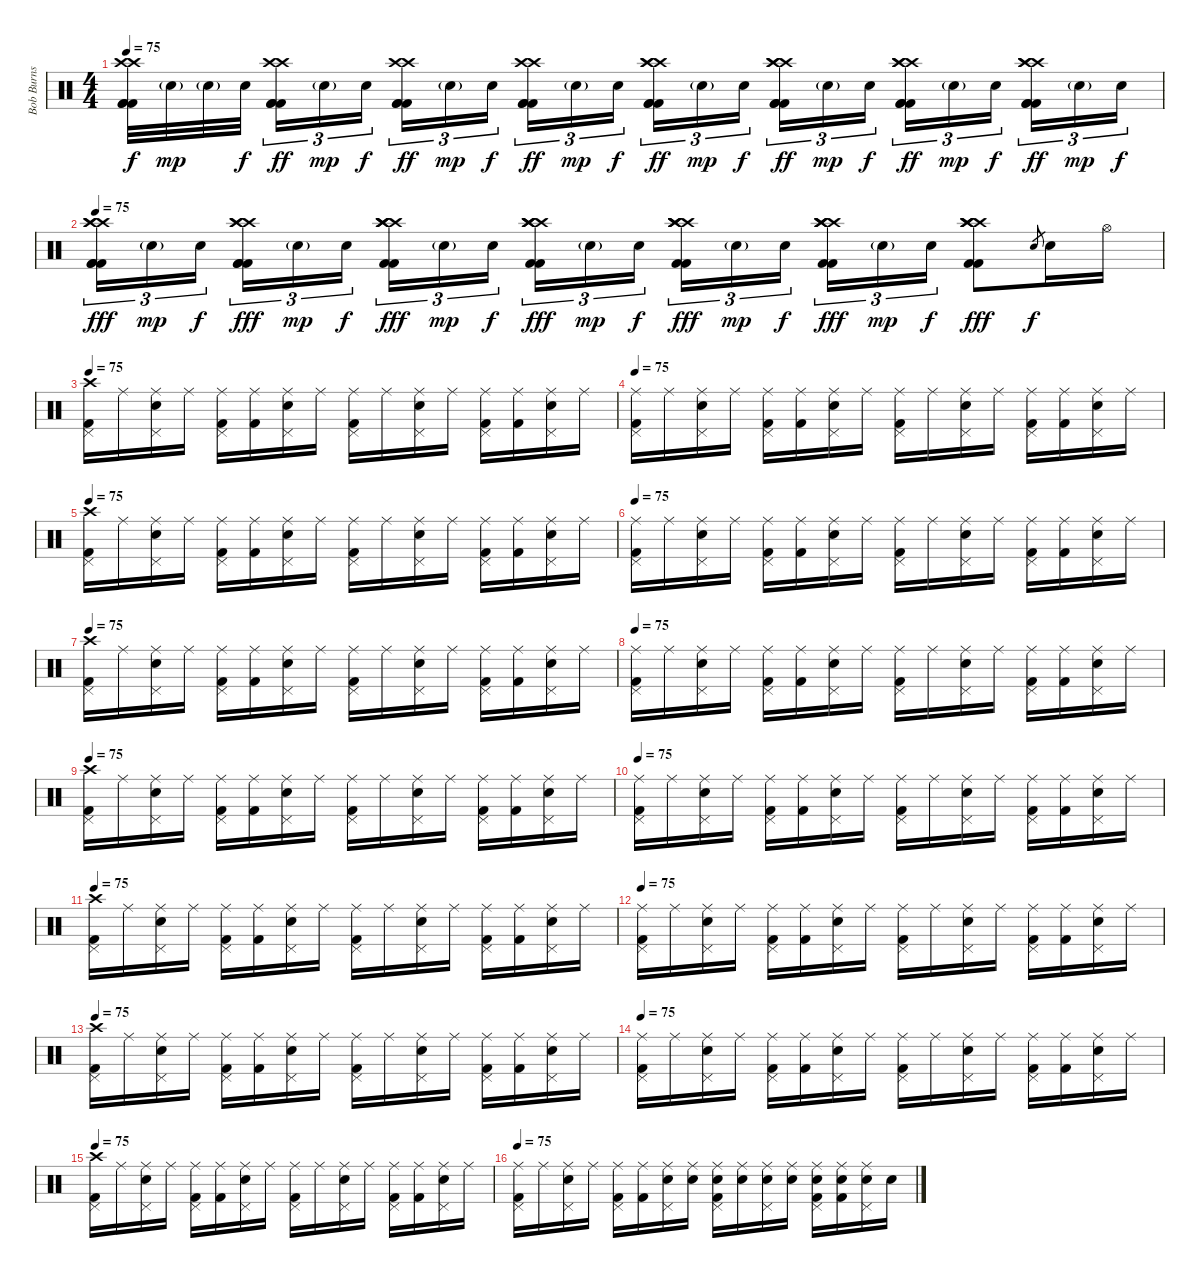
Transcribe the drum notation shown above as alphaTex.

\track ("Bob Burns (drums and percussion)" "Bob Burns ") {instrument percussion}
\staff {score}
\articulation defaults
\ts (4 4)
\tempo 75
\clef neutral
\ks c
("Crash high (hit)" "Crash high (hit)" "Kick (hit) 2" "Kick (hit) 2" "Kick (hit) 2").32{dy f} "Electric Snare (hit)"{g}.32{dy mp} "Electric Snare (hit)"{g}.32 "Electric Snare (hit)".32{dy f beam splitsecondary} ("Crash high (hit)" "Crash high (hit)" "Kick (hit) 2" "Kick (hit) 2" "Kick (hit) 2").16{tu (3 2) dy ff} "Electric Snare (hit)"{g}.16{tu (3 2) dy mp} "Electric Snare (hit)".16{tu (3 2) dy f} ("Crash high (hit)" "Crash high (hit)" "Kick (hit) 2" "Kick (hit) 2" "Kick (hit) 2").16{tu (3 2) dy ff} "Electric Snare (hit)"{g}.16{tu (3 2) dy mp} "Electric Snare (hit)".16{tu (3 2) dy f beam splitsecondary} ("Crash high (hit)" "Crash high (hit)" "Kick (hit) 2" "Kick (hit) 2" "Kick (hit) 2").16{tu (3 2) dy ff} "Electric Snare (hit)"{g}.16{tu (3 2) dy mp} "Electric Snare (hit)".16{tu (3 2) dy f} ("Crash high (hit)" "Crash high (hit)" "Crash high (hit)" "Kick (hit) 2" "Kick (hit) 2" "Kick (hit) 2").16{tu (3 2) dy ff} "Electric Snare (hit)"{g}.16{tu (3 2) dy mp} "Electric Snare (hit)".16{tu (3 2) dy f beam splitsecondary} ("Crash high (hit)" "Crash high (hit)" "Crash high (hit)" "Kick (hit) 2" "Kick (hit) 2" "Kick (hit) 2").16{tu (3 2) dy ff} "Electric Snare (hit)"{g}.16{tu (3 2) dy mp} "Electric Snare (hit)".16{tu (3 2) dy f} ("Crash high (hit)" "Crash high (hit)" "Crash high (hit)" "Kick (hit) 2" "Kick (hit) 2" "Kick (hit) 2").16{tu (3 2) dy ff} "Electric Snare (hit)"{g}.16{tu (3 2) dy mp} "Electric Snare (hit)".16{tu (3 2) dy f beam splitsecondary} ("Crash high (hit)" "Crash high (hit)" "Crash high (hit)" "Kick (hit) 2" "Kick (hit) 2" "Kick (hit) 2").16{tu (3 2) dy ff} "Electric Snare (hit)"{g}.16{tu (3 2) dy mp} "Electric Snare (hit)".16{tu (3 2) dy f} |
\tempo 75
("Crash high (hit)" "Crash high (hit)" "Crash high (hit)" "Kick (hit) 2" "Kick (hit) 2" "Kick (hit) 2").16{tu (3 2) dy fff} "Electric Snare (hit)"{g}.16{tu (3 2) dy mp} "Electric Snare (hit)".16{tu (3 2) dy f beam splitsecondary} ("Crash high (hit)" "Crash high (hit)" "Crash high (hit)" "Kick (hit) 2" "Kick (hit) 2" "Kick (hit) 2").16{tu (3 2) dy fff} "Electric Snare (hit)"{g}.16{tu (3 2) dy mp} "Electric Snare (hit)".16{tu (3 2) dy f} ("Crash high (hit)" "Crash high (hit)" "Crash high (hit)" "Crash high (hit)" "Kick (hit) 2" "Kick (hit) 2").16{tu (3 2) dy fff} "Electric Snare (hit)"{g}.16{tu (3 2) dy mp} "Electric Snare (hit)".16{tu (3 2) dy f beam splitsecondary} ("Crash high (hit)" "Crash high (hit)" "Crash high (hit)" "Crash high (hit)" "Kick (hit) 2" "Kick (hit) 2").16{tu (3 2) dy fff} "Electric Snare (hit)"{g}.16{tu (3 2) dy mp} "Electric Snare (hit)".16{tu (3 2) dy f} ("Crash high (hit)" "Crash high (hit)" "Crash high (hit)" "Crash high (hit)" "Kick (hit) 2" "Kick (hit) 2").16{tu (3 2) dy fff} "Electric Snare (hit)"{g}.16{tu (3 2) dy mp} "Electric Snare (hit)".16{tu (3 2) dy f beam splitsecondary} ("Crash high (hit)" "Crash high (hit)" "Crash high (hit)" "Crash high (hit)" "Kick (hit) 2" "Kick (hit) 2").16{tu (3 2) dy fff} "Electric Snare (hit)"{g}.16{tu (3 2) dy mp} "Electric Snare (hit)".16{tu (3 2) dy f} ("Crash high (hit)" "Crash high (hit)" "Crash high (hit)" "Crash high (hit)" "Kick (hit) 2" "Kick (hit) 2").8{dy fff} "Electric Snare (hit)".8{gr dy f} "Electric Snare (hit)".16 "Hi-Hat (open)".16 |
\tempo 75
("Crash high (hit)" "Pedal Hi-Hat (hit)" "Kick (hit) 2").16 "Ride (middle)".16 ("Ride (middle)" "Pedal Hi-Hat (hit)" "Electric Snare (hit)").16 "Ride (middle)".16 ("Ride (middle)" "Pedal Hi-Hat (hit)" "Kick (hit) 2").16 ("Ride (middle)" "Kick (hit) 2").16 ("Ride (middle)" "Pedal Hi-Hat (hit)" "Electric Snare (hit)").16 "Ride (middle)".16 ("Ride (middle)" "Pedal Hi-Hat (hit)" "Kick (hit) 2").16 "Ride (middle)".16 ("Ride (middle)" "Pedal Hi-Hat (hit)" "Electric Snare (hit)").16 "Ride (middle)".16 ("Ride (middle)" "Pedal Hi-Hat (hit)" "Kick (hit) 2").16 ("Ride (middle)" "Kick (hit) 2").16 ("Ride (middle)" "Pedal Hi-Hat (hit)" "Electric Snare (hit)").16 "Ride (middle)".16 |
\tempo 75
("Ride (middle)" "Pedal Hi-Hat (hit)" "Kick (hit) 2").16 "Ride (middle)".16 ("Ride (middle)" "Pedal Hi-Hat (hit)" "Electric Snare (hit)").16 "Ride (middle)".16 ("Ride (middle)" "Pedal Hi-Hat (hit)" "Kick (hit) 2").16 ("Ride (middle)" "Kick (hit) 2").16 ("Ride (middle)" "Pedal Hi-Hat (hit)" "Electric Snare (hit)").16 "Ride (middle)".16 ("Ride (middle)" "Pedal Hi-Hat (hit)" "Kick (hit) 2").16 "Ride (middle)".16 ("Ride (middle)" "Pedal Hi-Hat (hit)" "Electric Snare (hit)").16 "Ride (middle)".16 ("Ride (middle)" "Pedal Hi-Hat (hit)" "Kick (hit) 2").16 ("Ride (middle)" "Kick (hit) 2").16 ("Ride (middle)" "Pedal Hi-Hat (hit)" "Electric Snare (hit)").16 "Ride (middle)".16 |
\tempo 75
("Crash high (hit)" "Pedal Hi-Hat (hit)" "Kick (hit) 2").16 "Ride (middle)".16 ("Ride (middle)" "Pedal Hi-Hat (hit)" "Electric Snare (hit)").16 "Ride (middle)".16 ("Ride (middle)" "Pedal Hi-Hat (hit)" "Kick (hit) 2").16 ("Ride (middle)" "Kick (hit) 2").16 ("Ride (middle)" "Pedal Hi-Hat (hit)" "Electric Snare (hit)").16 "Ride (middle)".16 ("Ride (middle)" "Pedal Hi-Hat (hit)" "Kick (hit) 2").16 "Ride (middle)".16 ("Ride (middle)" "Pedal Hi-Hat (hit)" "Electric Snare (hit)").16 "Ride (middle)".16 ("Ride (middle)" "Pedal Hi-Hat (hit)" "Kick (hit) 2").16 ("Ride (middle)" "Kick (hit) 2").16 ("Ride (middle)" "Pedal Hi-Hat (hit)" "Electric Snare (hit)").16 "Ride (middle)".16 |
\tempo 75
("Ride (middle)" "Pedal Hi-Hat (hit)" "Kick (hit) 2").16 "Ride (middle)".16 ("Ride (middle)" "Pedal Hi-Hat (hit)" "Electric Snare (hit)").16 "Ride (middle)".16 ("Ride (middle)" "Pedal Hi-Hat (hit)" "Kick (hit) 2").16 ("Ride (middle)" "Kick (hit) 2").16 ("Ride (middle)" "Pedal Hi-Hat (hit)" "Electric Snare (hit)").16 "Ride (middle)".16 ("Ride (middle)" "Pedal Hi-Hat (hit)" "Kick (hit) 2").16 "Ride (middle)".16 ("Ride (middle)" "Pedal Hi-Hat (hit)" "Electric Snare (hit)").16 "Ride (middle)".16 ("Ride (middle)" "Pedal Hi-Hat (hit)" "Kick (hit) 2").16 ("Ride (middle)" "Kick (hit) 2").16 ("Ride (middle)" "Pedal Hi-Hat (hit)" "Electric Snare (hit)").16 "Ride (middle)".16 |
\tempo 75
("Crash high (hit)" "Pedal Hi-Hat (hit)" "Kick (hit) 2").16 "Ride (middle)".16 ("Ride (middle)" "Pedal Hi-Hat (hit)" "Electric Snare (hit)").16 "Ride (middle)".16 ("Ride (middle)" "Pedal Hi-Hat (hit)" "Kick (hit) 2").16 ("Ride (middle)" "Kick (hit) 2").16 ("Ride (middle)" "Pedal Hi-Hat (hit)" "Electric Snare (hit)").16 "Ride (middle)".16 ("Ride (middle)" "Pedal Hi-Hat (hit)" "Kick (hit) 2").16 "Ride (middle)".16 ("Ride (middle)" "Pedal Hi-Hat (hit)" "Electric Snare (hit)").16 "Ride (middle)".16 ("Ride (middle)" "Pedal Hi-Hat (hit)" "Kick (hit) 2").16 ("Ride (middle)" "Kick (hit) 2").16 ("Ride (middle)" "Pedal Hi-Hat (hit)" "Electric Snare (hit)").16 "Ride (middle)".16 |
\tempo 75
("Ride (middle)" "Pedal Hi-Hat (hit)" "Kick (hit) 2").16 "Ride (middle)".16 ("Ride (middle)" "Pedal Hi-Hat (hit)" "Electric Snare (hit)").16 "Ride (middle)".16 ("Ride (middle)" "Pedal Hi-Hat (hit)" "Kick (hit) 2").16 ("Ride (middle)" "Kick (hit) 2").16 ("Ride (middle)" "Pedal Hi-Hat (hit)" "Electric Snare (hit)").16 "Ride (middle)".16 ("Ride (middle)" "Pedal Hi-Hat (hit)" "Kick (hit) 2").16 "Ride (middle)".16 ("Ride (middle)" "Pedal Hi-Hat (hit)" "Electric Snare (hit)").16 "Ride (middle)".16 ("Ride (middle)" "Pedal Hi-Hat (hit)" "Kick (hit) 2").16 ("Ride (middle)" "Kick (hit) 2").16 ("Ride (middle)" "Pedal Hi-Hat (hit)" "Electric Snare (hit)").16 "Ride (middle)".16 |
\tempo 75
("Crash high (hit)" "Pedal Hi-Hat (hit)" "Kick (hit) 2").16 "Ride (middle)".16 ("Ride (middle)" "Pedal Hi-Hat (hit)" "Electric Snare (hit)").16 "Ride (middle)".16 ("Ride (middle)" "Pedal Hi-Hat (hit)" "Kick (hit) 2").16 ("Ride (middle)" "Kick (hit) 2").16 ("Ride (middle)" "Pedal Hi-Hat (hit)" "Electric Snare (hit)").16 "Ride (middle)".16 ("Ride (middle)" "Pedal Hi-Hat (hit)" "Kick (hit) 2").16 "Ride (middle)".16 ("Ride (middle)" "Pedal Hi-Hat (hit)" "Electric Snare (hit)").16 "Ride (middle)".16 ("Ride (middle)" "Pedal Hi-Hat (hit)" "Kick (hit) 2").16 ("Ride (middle)" "Kick (hit) 2").16 ("Ride (middle)" "Pedal Hi-Hat (hit)" "Electric Snare (hit)").16 "Ride (middle)".16 |
\tempo 75
("Ride (middle)" "Pedal Hi-Hat (hit)" "Kick (hit) 2").16 "Ride (middle)".16 ("Ride (middle)" "Pedal Hi-Hat (hit)" "Electric Snare (hit)").16 "Ride (middle)".16 ("Ride (middle)" "Pedal Hi-Hat (hit)" "Kick (hit) 2").16 ("Ride (middle)" "Kick (hit) 2").16 ("Ride (middle)" "Pedal Hi-Hat (hit)" "Electric Snare (hit)").16 "Ride (middle)".16 ("Ride (middle)" "Pedal Hi-Hat (hit)" "Kick (hit) 2").16 "Ride (middle)".16 ("Ride (middle)" "Pedal Hi-Hat (hit)" "Electric Snare (hit)").16 "Ride (middle)".16 ("Ride (middle)" "Pedal Hi-Hat (hit)" "Kick (hit) 2").16 ("Ride (middle)" "Kick (hit) 2").16 ("Ride (middle)" "Pedal Hi-Hat (hit)" "Electric Snare (hit)").16 "Ride (middle)".16 |
\tempo 75
("Crash high (hit)" "Pedal Hi-Hat (hit)" "Kick (hit) 2").16 "Ride (middle)".16 ("Ride (middle)" "Pedal Hi-Hat (hit)" "Electric Snare (hit)").16 "Ride (middle)".16 ("Ride (middle)" "Pedal Hi-Hat (hit)" "Kick (hit) 2").16 ("Ride (middle)" "Kick (hit) 2").16 ("Ride (middle)" "Pedal Hi-Hat (hit)" "Electric Snare (hit)").16 "Ride (middle)".16 ("Ride (middle)" "Pedal Hi-Hat (hit)" "Kick (hit) 2").16 "Ride (middle)".16 ("Ride (middle)" "Pedal Hi-Hat (hit)" "Electric Snare (hit)").16 "Ride (middle)".16 ("Ride (middle)" "Pedal Hi-Hat (hit)" "Kick (hit) 2").16 ("Ride (middle)" "Kick (hit) 2").16 ("Ride (middle)" "Pedal Hi-Hat (hit)" "Electric Snare (hit)").16 "Ride (middle)".16 |
\tempo 75
("Ride (middle)" "Pedal Hi-Hat (hit)" "Kick (hit) 2").16 "Ride (middle)".16 ("Ride (middle)" "Pedal Hi-Hat (hit)" "Electric Snare (hit)").16 "Ride (middle)".16 ("Ride (middle)" "Pedal Hi-Hat (hit)" "Kick (hit) 2").16 ("Ride (middle)" "Kick (hit) 2").16 ("Ride (middle)" "Pedal Hi-Hat (hit)" "Electric Snare (hit)").16 "Ride (middle)".16 ("Ride (middle)" "Pedal Hi-Hat (hit)" "Kick (hit) 2").16 "Ride (middle)".16 ("Ride (middle)" "Pedal Hi-Hat (hit)" "Electric Snare (hit)").16 "Ride (middle)".16 ("Ride (middle)" "Pedal Hi-Hat (hit)" "Kick (hit) 2").16 ("Ride (middle)" "Kick (hit) 2").16 ("Ride (middle)" "Pedal Hi-Hat (hit)" "Electric Snare (hit)").16 "Ride (middle)".16 |
\tempo 75
("Crash high (hit)" "Pedal Hi-Hat (hit)" "Kick (hit) 2").16 "Ride (middle)".16 ("Ride (middle)" "Pedal Hi-Hat (hit)" "Electric Snare (hit)").16 "Ride (middle)".16 ("Ride (middle)" "Pedal Hi-Hat (hit)" "Kick (hit) 2").16 ("Ride (middle)" "Kick (hit) 2").16 ("Ride (middle)" "Pedal Hi-Hat (hit)" "Electric Snare (hit)").16 "Ride (middle)".16 ("Ride (middle)" "Pedal Hi-Hat (hit)" "Kick (hit) 2").16 "Ride (middle)".16 ("Ride (middle)" "Pedal Hi-Hat (hit)" "Electric Snare (hit)").16 "Ride (middle)".16 ("Ride (middle)" "Pedal Hi-Hat (hit)" "Kick (hit) 2").16 ("Ride (middle)" "Kick (hit) 2").16 ("Ride (middle)" "Pedal Hi-Hat (hit)" "Electric Snare (hit)").16 "Ride (middle)".16 |
\tempo 75
("Ride (middle)" "Pedal Hi-Hat (hit)" "Kick (hit) 2").16 "Ride (middle)".16 ("Ride (middle)" "Pedal Hi-Hat (hit)" "Electric Snare (hit)").16 "Ride (middle)".16 ("Ride (middle)" "Pedal Hi-Hat (hit)" "Kick (hit) 2").16 ("Ride (middle)" "Kick (hit) 2").16 ("Ride (middle)" "Pedal Hi-Hat (hit)" "Electric Snare (hit)").16 "Ride (middle)".16 ("Ride (middle)" "Pedal Hi-Hat (hit)" "Kick (hit) 2").16 "Ride (middle)".16 ("Ride (middle)" "Pedal Hi-Hat (hit)" "Electric Snare (hit)").16 "Ride (middle)".16 ("Ride (middle)" "Pedal Hi-Hat (hit)" "Kick (hit) 2").16 ("Ride (middle)" "Kick (hit) 2").16 ("Ride (middle)" "Pedal Hi-Hat (hit)" "Electric Snare (hit)").16 "Ride (middle)".16 |
\tempo 75
("Crash high (hit)" "Pedal Hi-Hat (hit)" "Kick (hit) 2").16 "Ride (middle)".16 ("Ride (middle)" "Pedal Hi-Hat (hit)" "Electric Snare (hit)").16 "Ride (middle)".16 ("Ride (middle)" "Pedal Hi-Hat (hit)" "Kick (hit) 2").16 ("Ride (middle)" "Kick (hit) 2").16 ("Ride (middle)" "Pedal Hi-Hat (hit)" "Electric Snare (hit)").16 "Ride (middle)".16 ("Ride (middle)" "Pedal Hi-Hat (hit)" "Kick (hit) 2").16 "Ride (middle)".16 ("Ride (middle)" "Pedal Hi-Hat (hit)" "Electric Snare (hit)").16 "Ride (middle)".16 ("Ride (middle)" "Pedal Hi-Hat (hit)" "Kick (hit) 2").16 ("Ride (middle)" "Kick (hit) 2").16 ("Ride (middle)" "Pedal Hi-Hat (hit)" "Electric Snare (hit)").16 "Ride (middle)".16 |
\tempo 75
("Ride (middle)" "Pedal Hi-Hat (hit)" "Kick (hit) 2").16 "Ride (middle)".16 ("Ride (middle)" "Pedal Hi-Hat (hit)" "Electric Snare (hit)").16 "Ride (middle)".16 ("Ride (middle)" "Pedal Hi-Hat (hit)" "Kick (hit) 2").16 ("Ride (middle)" "Kick (hit) 2").16 ("Ride (middle)" "Pedal Hi-Hat (hit)" "Electric Snare (hit)").16 ("Ride (middle)" "Electric Snare (hit)").16 ("Ride (middle)" "Pedal Hi-Hat (hit)" "Electric Snare (hit)" "Kick (hit) 2").16 ("Ride (middle)" "Electric Snare (hit)").16 ("Ride (middle)" "Pedal Hi-Hat (hit)" "Electric Snare (hit)").16 ("Ride (middle)" "Electric Snare (hit)").16 ("Ride (middle)" "Pedal Hi-Hat (hit)" "Electric Snare (hit)" "Kick (hit) 2").16 ("Ride (middle)" "Electric Snare (hit)" "Kick (hit) 2").16 ("Ride (middle)" "Pedal Hi-Hat (hit)" "Electric Snare (hit)").16 "Electric Snare (hit)".16
